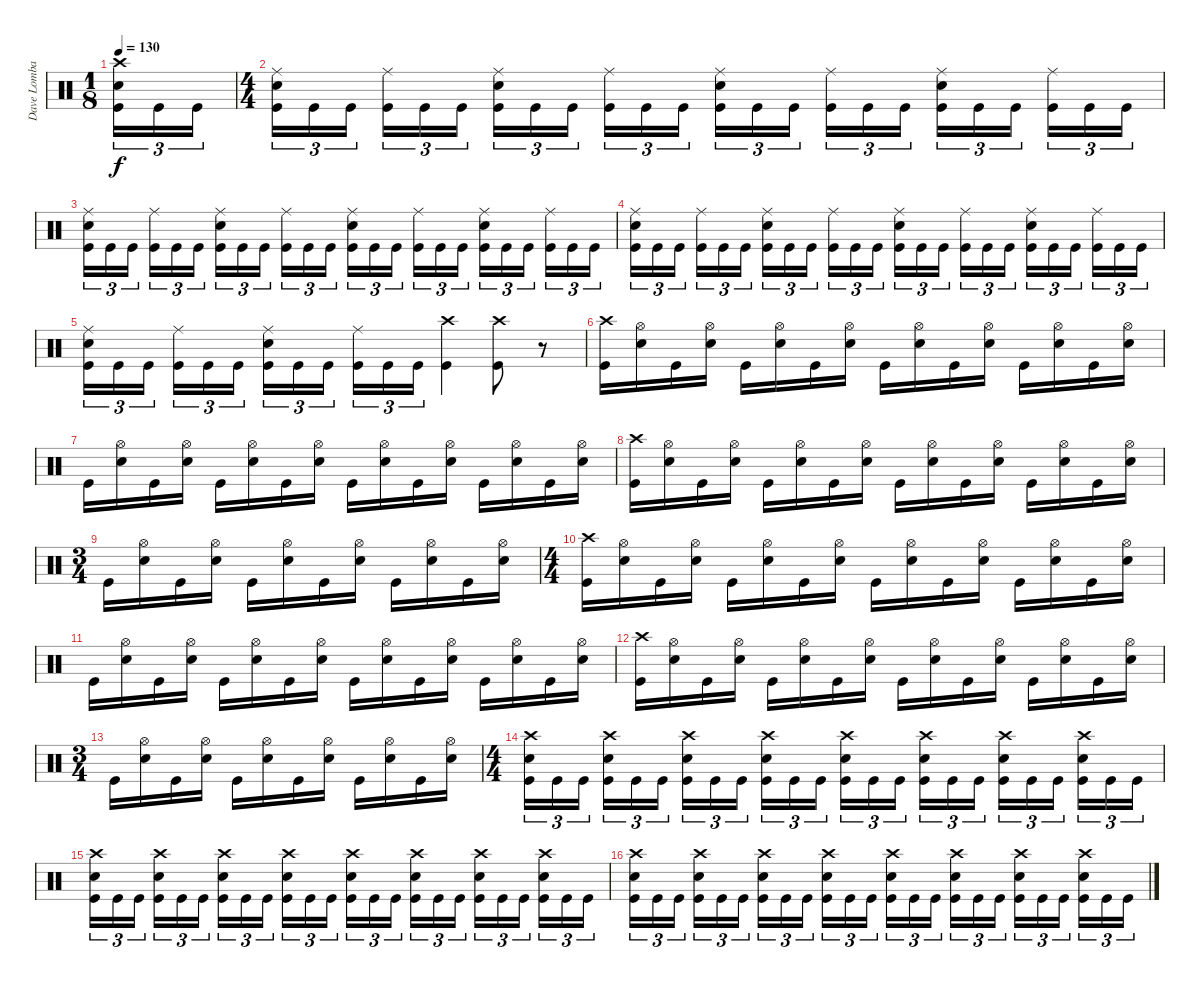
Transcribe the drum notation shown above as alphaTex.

\track ("Dave Lombardo" "Dave Lomba") {instrument percussion}
\staff {score}
\articulation defaults
\ts (1 8)
\tempo 130
\clef neutral
\ks c
("Crash high (hit)" "Electric Snare (hit)" "Kick (hit)").16{tu (3 2) dy f} "Kick (hit)".16{tu (3 2)} "Kick (hit)".16{tu (3 2)} |
\ts (4 4)
("Ride (middle)" "Electric Snare (hit)" "Kick (hit)").16{tu (3 2)} "Kick (hit)".16{tu (3 2)} "Kick (hit)".16{tu (3 2)} ("Ride (middle)" "Kick (hit)").16{tu (3 2)} "Kick (hit)".16{tu (3 2)} "Kick (hit)".16{tu (3 2)} ("Ride (middle)" "Electric Snare (hit)" "Kick (hit)").16{tu (3 2)} "Kick (hit)".16{tu (3 2)} "Kick (hit)".16{tu (3 2)} ("Ride (middle)" "Kick (hit)").16{tu (3 2)} "Kick (hit)".16{tu (3 2)} "Kick (hit)".16{tu (3 2)} ("Ride (middle)" "Electric Snare (hit)" "Kick (hit)").16{tu (3 2)} "Kick (hit)".16{tu (3 2)} "Kick (hit)".16{tu (3 2)} ("Ride (middle)" "Kick (hit)").16{tu (3 2)} "Kick (hit)".16{tu (3 2)} "Kick (hit)".16{tu (3 2)} ("Ride (middle)" "Electric Snare (hit)" "Kick (hit)").16{tu (3 2)} "Kick (hit)".16{tu (3 2)} "Kick (hit)".16{tu (3 2)} ("Ride (middle)" "Kick (hit)").16{tu (3 2)} "Kick (hit)".16{tu (3 2)} "Kick (hit)".16{tu (3 2)} |
("Ride (middle)" "Electric Snare (hit)" "Kick (hit)").16{tu (3 2)} "Kick (hit)".16{tu (3 2)} "Kick (hit)".16{tu (3 2)} ("Ride (middle)" "Kick (hit)").16{tu (3 2)} "Kick (hit)".16{tu (3 2)} "Kick (hit)".16{tu (3 2)} ("Ride (middle)" "Electric Snare (hit)" "Kick (hit)").16{tu (3 2)} "Kick (hit)".16{tu (3 2)} "Kick (hit)".16{tu (3 2)} ("Ride (middle)" "Kick (hit)").16{tu (3 2)} "Kick (hit)".16{tu (3 2)} "Kick (hit)".16{tu (3 2)} ("Ride (middle)" "Electric Snare (hit)" "Kick (hit)").16{tu (3 2)} "Kick (hit)".16{tu (3 2)} "Kick (hit)".16{tu (3 2)} ("Ride (middle)" "Kick (hit)").16{tu (3 2)} "Kick (hit)".16{tu (3 2)} "Kick (hit)".16{tu (3 2)} ("Ride (middle)" "Electric Snare (hit)" "Kick (hit)").16{tu (3 2)} "Kick (hit)".16{tu (3 2)} "Kick (hit)".16{tu (3 2)} ("Ride (middle)" "Kick (hit)").16{tu (3 2)} "Kick (hit)".16{tu (3 2)} "Kick (hit)".16{tu (3 2)} |
("Ride (middle)" "Electric Snare (hit)" "Kick (hit)").16{tu (3 2)} "Kick (hit)".16{tu (3 2)} "Kick (hit)".16{tu (3 2)} ("Ride (middle)" "Kick (hit)").16{tu (3 2)} "Kick (hit)".16{tu (3 2)} "Kick (hit)".16{tu (3 2)} ("Ride (middle)" "Electric Snare (hit)" "Kick (hit)").16{tu (3 2)} "Kick (hit)".16{tu (3 2)} "Kick (hit)".16{tu (3 2)} ("Ride (middle)" "Kick (hit)").16{tu (3 2)} "Kick (hit)".16{tu (3 2)} "Kick (hit)".16{tu (3 2)} ("Ride (middle)" "Electric Snare (hit)" "Kick (hit)").16{tu (3 2)} "Kick (hit)".16{tu (3 2)} "Kick (hit)".16{tu (3 2)} ("Ride (middle)" "Kick (hit)").16{tu (3 2)} "Kick (hit)".16{tu (3 2)} "Kick (hit)".16{tu (3 2)} ("Ride (middle)" "Electric Snare (hit)" "Kick (hit)").16{tu (3 2)} "Kick (hit)".16{tu (3 2)} "Kick (hit)".16{tu (3 2)} ("Ride (middle)" "Kick (hit)").16{tu (3 2)} "Kick (hit)".16{tu (3 2)} "Kick (hit)".16{tu (3 2)} |
("Ride (middle)" "Electric Snare (hit)" "Kick (hit)").16{tu (3 2)} "Kick (hit)".16{tu (3 2)} "Kick (hit)".16{tu (3 2)} ("Ride (middle)" "Kick (hit)").16{tu (3 2)} "Kick (hit)".16{tu (3 2)} "Kick (hit)".16{tu (3 2)} ("Ride (middle)" "Electric Snare (hit)" "Kick (hit)").16{tu (3 2)} "Kick (hit)".16{tu (3 2)} "Kick (hit)".16{tu (3 2)} ("Ride (middle)" "Kick (hit)").16{tu (3 2)} "Kick (hit)".16{tu (3 2)} "Kick (hit)".16{tu (3 2)} ("Crash high (hit)" "Kick (hit)").4 ("Crash high (hit)" "Kick (hit)").8 r.8 |
("Crash high (hit)" "Kick (hit)").16 ("Hi-Hat (open)" "Electric Snare (hit)").16 "Kick (hit)".16 ("Hi-Hat (open)" "Electric Snare (hit)").16 "Kick (hit)".16 ("Hi-Hat (open)" "Electric Snare (hit)").16 "Kick (hit)".16 ("Hi-Hat (open)" "Electric Snare (hit)").16 "Kick (hit)".16 ("Hi-Hat (open)" "Electric Snare (hit)").16 "Kick (hit)".16 ("Hi-Hat (open)" "Electric Snare (hit)").16 "Kick (hit)".16 ("Hi-Hat (open)" "Electric Snare (hit)").16 "Kick (hit)".16 ("Hi-Hat (open)" "Electric Snare (hit)").16 |
"Kick (hit)".16 ("Hi-Hat (open)" "Electric Snare (hit)").16 "Kick (hit)".16 ("Hi-Hat (open)" "Electric Snare (hit)").16 "Kick (hit)".16 ("Hi-Hat (open)" "Electric Snare (hit)").16 "Kick (hit)".16 ("Hi-Hat (open)" "Electric Snare (hit)").16 "Kick (hit)".16 ("Hi-Hat (open)" "Electric Snare (hit)").16 "Kick (hit)".16 ("Hi-Hat (open)" "Electric Snare (hit)").16 "Kick (hit)".16 ("Hi-Hat (open)" "Electric Snare (hit)").16 "Kick (hit)".16 ("Hi-Hat (open)" "Electric Snare (hit)").16 |
("Crash high (hit)" "Kick (hit)").16 ("Hi-Hat (open)" "Electric Snare (hit)").16 "Kick (hit)".16 ("Hi-Hat (open)" "Electric Snare (hit)").16 "Kick (hit)".16 ("Hi-Hat (open)" "Electric Snare (hit)").16 "Kick (hit)".16 ("Hi-Hat (open)" "Electric Snare (hit)").16 "Kick (hit)".16 ("Hi-Hat (open)" "Electric Snare (hit)").16 "Kick (hit)".16 ("Hi-Hat (open)" "Electric Snare (hit)").16 "Kick (hit)".16 ("Hi-Hat (open)" "Electric Snare (hit)").16 "Kick (hit)".16 ("Hi-Hat (open)" "Electric Snare (hit)").16 |
\ts (3 4)
"Kick (hit)".16 ("Hi-Hat (open)" "Electric Snare (hit)").16 "Kick (hit)".16 ("Hi-Hat (open)" "Electric Snare (hit)").16 "Kick (hit)".16 ("Hi-Hat (open)" "Electric Snare (hit)").16 "Kick (hit)".16 ("Hi-Hat (open)" "Electric Snare (hit)").16 "Kick (hit)".16 ("Hi-Hat (open)" "Electric Snare (hit)").16 "Kick (hit)".16 ("Hi-Hat (open)" "Electric Snare (hit)").16 |
\ts (4 4)
("Crash high (hit)" "Kick (hit)").16 ("Hi-Hat (open)" "Electric Snare (hit)").16 "Kick (hit)".16 ("Hi-Hat (open)" "Electric Snare (hit)").16 "Kick (hit)".16 ("Hi-Hat (open)" "Electric Snare (hit)").16 "Kick (hit)".16 ("Hi-Hat (open)" "Electric Snare (hit)").16 "Kick (hit)".16 ("Hi-Hat (open)" "Electric Snare (hit)").16 "Kick (hit)".16 ("Hi-Hat (open)" "Electric Snare (hit)").16 "Kick (hit)".16 ("Hi-Hat (open)" "Electric Snare (hit)").16 "Kick (hit)".16 ("Hi-Hat (open)" "Electric Snare (hit)").16 |
"Kick (hit)".16 ("Hi-Hat (open)" "Electric Snare (hit)").16 "Kick (hit)".16 ("Hi-Hat (open)" "Electric Snare (hit)").16 "Kick (hit)".16 ("Hi-Hat (open)" "Electric Snare (hit)").16 "Kick (hit)".16 ("Hi-Hat (open)" "Electric Snare (hit)").16 "Kick (hit)".16 ("Hi-Hat (open)" "Electric Snare (hit)").16 "Kick (hit)".16 ("Hi-Hat (open)" "Electric Snare (hit)").16 "Kick (hit)".16 ("Hi-Hat (open)" "Electric Snare (hit)").16 "Kick (hit)".16 ("Hi-Hat (open)" "Electric Snare (hit)").16 |
("Crash high (hit)" "Kick (hit)").16 ("Hi-Hat (open)" "Electric Snare (hit)").16 "Kick (hit)".16 ("Hi-Hat (open)" "Electric Snare (hit)").16 "Kick (hit)".16 ("Hi-Hat (open)" "Electric Snare (hit)").16 "Kick (hit)".16 ("Hi-Hat (open)" "Electric Snare (hit)").16 "Kick (hit)".16 ("Hi-Hat (open)" "Electric Snare (hit)").16 "Kick (hit)".16 ("Hi-Hat (open)" "Electric Snare (hit)").16 "Kick (hit)".16 ("Hi-Hat (open)" "Electric Snare (hit)").16 "Kick (hit)".16 ("Hi-Hat (open)" "Electric Snare (hit)").16 |
\ts (3 4)
"Kick (hit)".16 ("Hi-Hat (open)" "Electric Snare (hit)").16 "Kick (hit)".16 ("Hi-Hat (open)" "Electric Snare (hit)").16 "Kick (hit)".16 ("Hi-Hat (open)" "Electric Snare (hit)").16 "Kick (hit)".16 ("Hi-Hat (open)" "Electric Snare (hit)").16 "Kick (hit)".16 ("Hi-Hat (open)" "Electric Snare (hit)").16 "Kick (hit)".16 ("Hi-Hat (open)" "Electric Snare (hit)").16 |
\ts (4 4)
("Crash high (hit)" "Electric Snare (hit)" "Kick (hit)").16{tu (3 2)} "Kick (hit)".16{tu (3 2)} "Kick (hit)".16{tu (3 2)} ("Crash high (hit)" "Electric Snare (hit)" "Kick (hit)").16{tu (3 2)} "Kick (hit)".16{tu (3 2)} "Kick (hit)".16{tu (3 2)} ("Crash high (hit)" "Electric Snare (hit)" "Kick (hit)").16{tu (3 2)} "Kick (hit)".16{tu (3 2)} "Kick (hit)".16{tu (3 2)} ("Crash high (hit)" "Electric Snare (hit)" "Kick (hit)").16{tu (3 2)} "Kick (hit)".16{tu (3 2)} "Kick (hit)".16{tu (3 2)} ("Crash high (hit)" "Electric Snare (hit)" "Kick (hit)").16{tu (3 2)} "Kick (hit)".16{tu (3 2)} "Kick (hit)".16{tu (3 2)} ("Crash high (hit)" "Electric Snare (hit)" "Kick (hit)").16{tu (3 2)} "Kick (hit)".16{tu (3 2)} "Kick (hit)".16{tu (3 2)} ("Crash high (hit)" "Electric Snare (hit)" "Kick (hit)").16{tu (3 2)} "Kick (hit)".16{tu (3 2)} "Kick (hit)".16{tu (3 2)} ("Crash high (hit)" "Electric Snare (hit)" "Kick (hit)").16{tu (3 2)} "Kick (hit)".16{tu (3 2)} "Kick (hit)".16{tu (3 2)} |
("Crash high (hit)" "Electric Snare (hit)" "Kick (hit)").16{tu (3 2)} "Kick (hit)".16{tu (3 2)} "Kick (hit)".16{tu (3 2)} ("Crash high (hit)" "Electric Snare (hit)" "Kick (hit)").16{tu (3 2)} "Kick (hit)".16{tu (3 2)} "Kick (hit)".16{tu (3 2)} ("Crash high (hit)" "Electric Snare (hit)" "Kick (hit)").16{tu (3 2)} "Kick (hit)".16{tu (3 2)} "Kick (hit)".16{tu (3 2)} ("Crash high (hit)" "Electric Snare (hit)" "Kick (hit)").16{tu (3 2)} "Kick (hit)".16{tu (3 2)} "Kick (hit)".16{tu (3 2)} ("Crash high (hit)" "Electric Snare (hit)" "Kick (hit)").16{tu (3 2)} "Kick (hit)".16{tu (3 2)} "Kick (hit)".16{tu (3 2)} ("Crash high (hit)" "Electric Snare (hit)" "Kick (hit)").16{tu (3 2)} "Kick (hit)".16{tu (3 2)} "Kick (hit)".16{tu (3 2)} ("Crash high (hit)" "Electric Snare (hit)" "Kick (hit)").16{tu (3 2)} "Kick (hit)".16{tu (3 2)} "Kick (hit)".16{tu (3 2)} ("Crash high (hit)" "Electric Snare (hit)" "Kick (hit)").16{tu (3 2)} "Kick (hit)".16{tu (3 2)} "Kick (hit)".16{tu (3 2)} |
("Crash high (hit)" "Electric Snare (hit)" "Kick (hit)").16{tu (3 2)} "Kick (hit)".16{tu (3 2)} "Kick (hit)".16{tu (3 2)} ("Crash high (hit)" "Electric Snare (hit)" "Kick (hit)").16{tu (3 2)} "Kick (hit)".16{tu (3 2)} "Kick (hit)".16{tu (3 2)} ("Crash high (hit)" "Electric Snare (hit)" "Kick (hit)").16{tu (3 2)} "Kick (hit)".16{tu (3 2)} "Kick (hit)".16{tu (3 2)} ("Crash high (hit)" "Electric Snare (hit)" "Kick (hit)").16{tu (3 2)} "Kick (hit)".16{tu (3 2)} "Kick (hit)".16{tu (3 2)} ("Crash high (hit)" "Electric Snare (hit)" "Kick (hit)").16{tu (3 2)} "Kick (hit)".16{tu (3 2)} "Kick (hit)".16{tu (3 2)} ("Crash high (hit)" "Electric Snare (hit)" "Kick (hit)").16{tu (3 2)} "Kick (hit)".16{tu (3 2)} "Kick (hit)".16{tu (3 2)} ("Crash high (hit)" "Electric Snare (hit)" "Kick (hit)").16{tu (3 2)} "Kick (hit)".16{tu (3 2)} "Kick (hit)".16{tu (3 2)} ("Crash high (hit)" "Electric Snare (hit)" "Kick (hit)").16{tu (3 2)} "Kick (hit)".16{tu (3 2)} "Kick (hit)".16{tu (3 2)}
